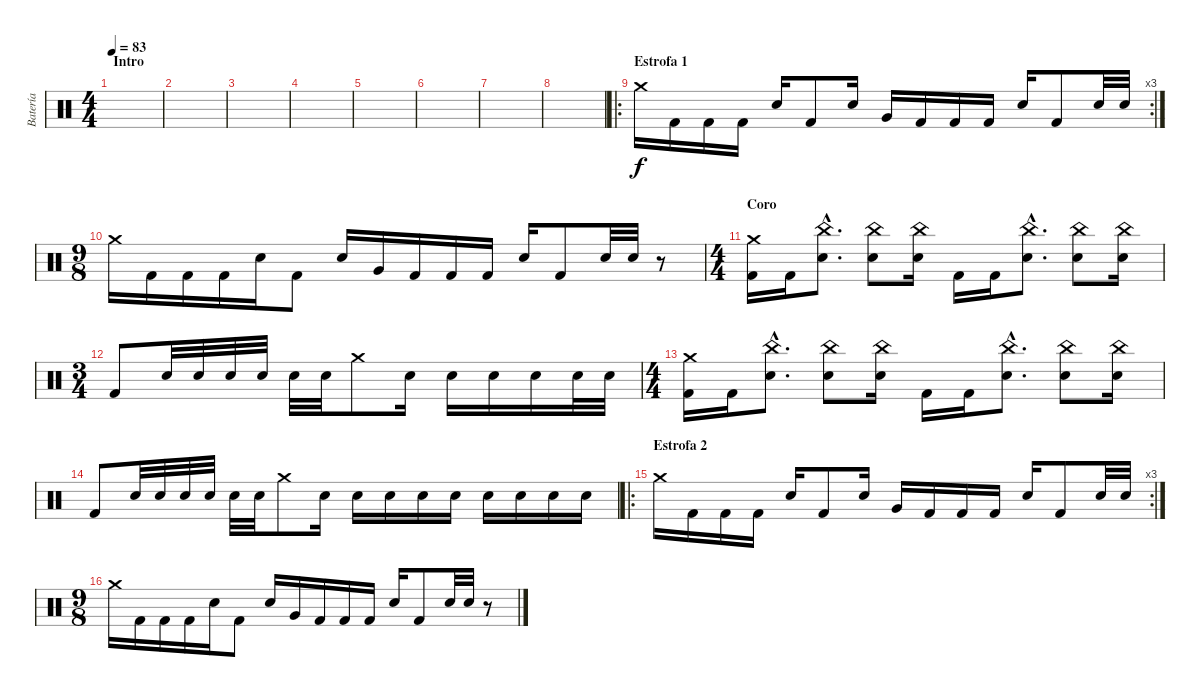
\track ("Batería" "Batería") {instrument percussion}
\staff {score}
\articulation defaults
\ts (4 4)
\section ("" "Intro")
\tempo 83
\clef neutral
\ks c
|
|
|
|
|
|
|
|
\ro
\rc 3
\section ("" "Estrofa 1")
"Crash medium (hit)".16 "Kick (hit) 2".16 "Kick (hit) 2".16 "Kick (hit) 2".16 "Electric Snare (hit)".16 "Kick (hit) 2".8 "Electric Snare (hit)".16 "Very Low Tom (hit)".16 "Kick (hit) 2".16 "Kick (hit) 2".16 "Kick (hit) 2".16 "Electric Snare (hit)".16 "Kick (hit) 2".8 "Electric Snare (hit)".32 "Electric Snare (hit)".32 |
\ts (9 8)
"Crash medium (hit)".16 "Kick (hit) 2".16 "Kick (hit) 2".16 "Kick (hit) 2".16 "Electric Snare (hit)".16 "Kick (hit) 2".8 "Electric Snare (hit)".16 "Very Low Tom (hit)".16 "Kick (hit) 2".16 "Kick (hit) 2".16 "Kick (hit) 2".16 "Electric Snare (hit)".16 "Kick (hit) 2".8 "Electric Snare (hit)".32 "Electric Snare (hit)".32 r.8 |
\ts (4 4)
\section ("" "Coro")
("Crash medium (hit)" "Kick (hit) 2").16 "Kick (hit) 2".16 ("China (hit)"{hac} "Electric Snare (hit)"{hac}).8{d} ("China (hit)" "Electric Snare (hit)").8 ("China (hit)" "Electric Snare (hit)").16 "Kick (hit) 2".16 "Kick (hit) 2".16 ("China (hit)"{hac} "Electric Snare (hit)"{hac}).8{d} ("China (hit)" "Electric Snare (hit)").8 ("China (hit)" "Electric Snare (hit)").16 |
\ts (3 4)
"Kick (hit) 2".8 "Electric Snare (hit)".32 "Electric Snare (hit)".32 "Electric Snare (hit)".32 "Electric Snare (hit)".32 "Electric Snare (hit)".32 "Electric Snare (hit)".32 "Crash medium (hit)".8 "Electric Snare (hit)".16 "Electric Snare (hit)".16 "Electric Snare (hit)".16 "Electric Snare (hit)".16 "Electric Snare (hit)".32 "Electric Snare (hit)".32 |
\ts (4 4)
("Crash medium (hit)" "Kick (hit) 2").16 "Kick (hit) 2".16 ("China (hit)"{hac} "Electric Snare (hit)"{hac}).8{d} ("China (hit)" "Electric Snare (hit)").8 ("China (hit)" "Electric Snare (hit)").16 "Kick (hit) 2".16 "Kick (hit) 2".16 ("China (hit)"{hac} "Electric Snare (hit)"{hac}).8{d} ("China (hit)" "Electric Snare (hit)").8 ("China (hit)" "Electric Snare (hit)").16 |
"Kick (hit) 2".8 "Electric Snare (hit)".32 "Electric Snare (hit)".32 "Electric Snare (hit)".32 "Electric Snare (hit)".32 "Electric Snare (hit)".32 "Electric Snare (hit)".32 "Crash medium (hit)".8 "Electric Snare (hit)".16 "Electric Snare (hit)".16 "Electric Snare (hit)".16 "Electric Snare (hit)".16 "Electric Snare (hit)".16 "Electric Snare (hit)".16 "Electric Snare (hit)".16 "Electric Snare (hit)".16 "Electric Snare (hit)".16 |
\ro
\rc 3
\section ("" "Estrofa 2")
"Crash medium (hit)".16 "Kick (hit) 2".16 "Kick (hit) 2".16 "Kick (hit) 2".16 "Electric Snare (hit)".16 "Kick (hit) 2".8 "Electric Snare (hit)".16 "Very Low Tom (hit)".16 "Kick (hit) 2".16 "Kick (hit) 2".16 "Kick (hit) 2".16 "Electric Snare (hit)".16 "Kick (hit) 2".8 "Electric Snare (hit)".32 "Electric Snare (hit)".32 |
\ts (9 8)
"Crash medium (hit)".16 "Kick (hit) 2".16 "Kick (hit) 2".16 "Kick (hit) 2".16 "Electric Snare (hit)".16 "Kick (hit) 2".8 "Electric Snare (hit)".16 "Very Low Tom (hit)".16 "Kick (hit) 2".16 "Kick (hit) 2".16 "Kick (hit) 2".16 "Electric Snare (hit)".16 "Kick (hit) 2".8 "Electric Snare (hit)".32 "Electric Snare (hit)".32 r.8
